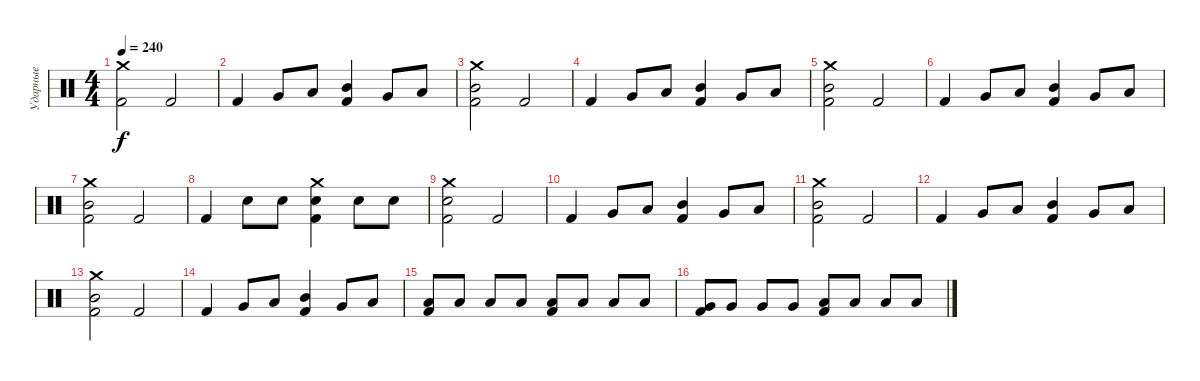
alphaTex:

\track ("Ударные" "Ударные") {instrument percussion}
\staff {score}
\articulation defaults
\ts (4 4)
\tempo 240
\clef neutral
\ks c
("Crash medium (hit)" "Kick (hit) 2").2{dy f} "Kick (hit) 2".2 |
"Kick (hit) 2".4 "Very Low Tom (hit)".8 "Low Tom (hit)".8 ("Mid Tom (hit)" "Kick (hit) 2").4 "Very Low Tom (hit)".8 "Low Tom (hit)".8 |
("Crash medium (hit)" "Mid Tom (hit)" "Kick (hit) 2").2 "Kick (hit) 2".2 |
"Kick (hit) 2".4 "Very Low Tom (hit)".8 "Low Tom (hit)".8 ("Mid Tom (hit)" "Kick (hit) 2").4 "Very Low Tom (hit)".8 "Low Tom (hit)".8 |
("Crash medium (hit)" "Mid Tom (hit)" "Kick (hit) 2").2 "Kick (hit) 2".2 |
"Kick (hit) 2".4 "Very Low Tom (hit)".8 "Low Tom (hit)".8 ("Mid Tom (hit)" "Kick (hit) 2").4 "Very Low Tom (hit)".8 "Low Tom (hit)".8 |
("Crash medium (hit)" "Mid Tom (hit)" "Kick (hit) 2").2 "Kick (hit) 2".2 |
"Kick (hit) 2".4 "Snare (hit) 2".8 "Snare (hit) 2".8 ("Crash medium (hit)" "Snare (hit) 2" "Kick (hit) 2").4 "Snare (hit) 2".8 "Snare (hit) 2".8 |
("Crash medium (hit)" "Snare (hit) 2" "Kick (hit) 2").2 "Kick (hit) 2".2 |
"Kick (hit) 2".4 "Very Low Tom (hit)".8 "Low Tom (hit)".8 ("Mid Tom (hit)" "Kick (hit) 2").4 "Very Low Tom (hit)".8 "Low Tom (hit)".8 |
("Crash medium (hit)" "Mid Tom (hit)" "Kick (hit) 2").2 "Kick (hit) 2".2 |
"Kick (hit) 2".4 "Very Low Tom (hit)".8 "Low Tom (hit)".8 ("Mid Tom (hit)" "Kick (hit) 2").4 "Very Low Tom (hit)".8 "Low Tom (hit)".8 |
("Crash medium (hit)" "Mid Tom (hit)" "Kick (hit) 2").2 "Kick (hit) 2".2 |
"Kick (hit) 2".4 "Very Low Tom (hit)".8 "Low Tom (hit)".8 ("Mid Tom (hit)" "Kick (hit) 2").4 "Very Low Tom (hit)".8 "Low Tom (hit)".8 |
("Low Tom (hit)" "Kick (hit) 2").8 "Low Tom (hit)".8 "Low Tom (hit)".8 "Low Tom (hit)".8 ("Low Tom (hit)" "Kick (hit) 2").8 "Low Tom (hit)".8 "Low Tom (hit)".8 "Low Tom (hit)".8 |
("Very Low Tom (hit)" "Kick (hit) 2").8 "Very Low Tom (hit)".8 "Very Low Tom (hit)".8 "Very Low Tom (hit)".8 ("Low Floor Tom (hit)" "Kick (hit) 2").8 "Low Floor Tom (hit)".8 "Low Floor Tom (hit)".8 "Low Floor Tom (hit)".8
